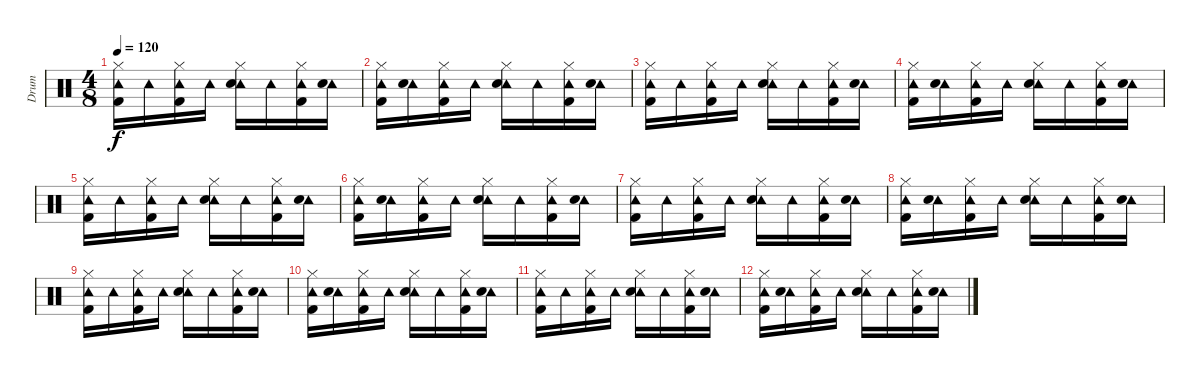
\track ("Drum" "Drum") {instrument percussion}
\staff {score}
\articulation defaults
\ts (4 8)
\tempo 120
\clef neutral
\ks c
("Hi-Hat (closed)" "Tambourine (hit)" "Kick (hit) 2").16{dy f} "Tambourine (hit)".16 ("Hi-Hat (closed)" "Tambourine (hit)" "Kick (hit) 2").16 "Tambourine (hit)".16 ("Hi-Hat (closed)" "Tambourine (hit)" "Electric Snare (hit)").16 "Tambourine (hit)".16 ("Hi-Hat (closed)" "Tambourine (hit)" "Kick (hit) 2").16 ("Tambourine (hit)" "Electric Snare (hit)").16 |
("Hi-Hat (closed)" "Tambourine (hit)" "Kick (hit) 2").16 ("Tambourine (hit)" "Electric Snare (hit)").16 ("Hi-Hat (closed)" "Tambourine (hit)" "Kick (hit) 2").16 "Tambourine (hit)".16 ("Hi-Hat (closed)" "Tambourine (hit)" "Electric Snare (hit)").16 "Tambourine (hit)".16 ("Hi-Hat (closed)" "Tambourine (hit)" "Kick (hit) 2").16 ("Tambourine (hit)" "Electric Snare (hit)").16 |
("Hi-Hat (closed)" "Tambourine (hit)" "Kick (hit) 2").16 "Tambourine (hit)".16 ("Hi-Hat (closed)" "Tambourine (hit)" "Kick (hit) 2").16 "Tambourine (hit)".16 ("Hi-Hat (closed)" "Tambourine (hit)" "Electric Snare (hit)").16 "Tambourine (hit)".16 ("Hi-Hat (closed)" "Tambourine (hit)" "Kick (hit) 2").16 ("Tambourine (hit)" "Electric Snare (hit)").16 |
("Hi-Hat (closed)" "Tambourine (hit)" "Kick (hit) 2").16 ("Tambourine (hit)" "Electric Snare (hit)").16 ("Hi-Hat (closed)" "Tambourine (hit)" "Kick (hit) 2").16 "Tambourine (hit)".16 ("Hi-Hat (closed)" "Tambourine (hit)" "Electric Snare (hit)").16 "Tambourine (hit)".16 ("Hi-Hat (closed)" "Tambourine (hit)" "Kick (hit) 2").16 ("Tambourine (hit)" "Electric Snare (hit)").16 |
("Hi-Hat (closed)" "Tambourine (hit)" "Kick (hit) 2").16{volume 8} "Tambourine (hit)".16 ("Hi-Hat (closed)" "Tambourine (hit)" "Kick (hit) 2").16 "Tambourine (hit)".16 ("Hi-Hat (closed)" "Tambourine (hit)" "Electric Snare (hit)").16 "Tambourine (hit)".16 ("Hi-Hat (closed)" "Tambourine (hit)" "Kick (hit) 2").16 ("Tambourine (hit)" "Electric Snare (hit)").16 |
("Hi-Hat (closed)" "Tambourine (hit)" "Kick (hit) 2").16 ("Tambourine (hit)" "Electric Snare (hit)").16 ("Hi-Hat (closed)" "Tambourine (hit)" "Kick (hit) 2").16 "Tambourine (hit)".16 ("Hi-Hat (closed)" "Tambourine (hit)" "Electric Snare (hit)").16 "Tambourine (hit)".16 ("Hi-Hat (closed)" "Tambourine (hit)" "Kick (hit) 2").16 ("Tambourine (hit)" "Electric Snare (hit)").16 |
("Hi-Hat (closed)" "Tambourine (hit)" "Kick (hit) 2").16{volume 4} "Tambourine (hit)".16 ("Hi-Hat (closed)" "Tambourine (hit)" "Kick (hit) 2").16 "Tambourine (hit)".16 ("Hi-Hat (closed)" "Tambourine (hit)" "Electric Snare (hit)").16 "Tambourine (hit)".16 ("Hi-Hat (closed)" "Tambourine (hit)" "Kick (hit) 2").16 ("Tambourine (hit)" "Electric Snare (hit)").16 |
("Hi-Hat (closed)" "Tambourine (hit)" "Kick (hit) 2").16 ("Tambourine (hit)" "Electric Snare (hit)").16 ("Hi-Hat (closed)" "Tambourine (hit)" "Kick (hit) 2").16 "Tambourine (hit)".16 ("Hi-Hat (closed)" "Tambourine (hit)" "Electric Snare (hit)").16 "Tambourine (hit)".16 ("Hi-Hat (closed)" "Tambourine (hit)" "Kick (hit) 2").16 ("Tambourine (hit)" "Electric Snare (hit)").16 |
("Hi-Hat (closed)" "Tambourine (hit)" "Kick (hit) 2").16{volume 0} "Tambourine (hit)".16 ("Hi-Hat (closed)" "Tambourine (hit)" "Kick (hit) 2").16 "Tambourine (hit)".16 ("Hi-Hat (closed)" "Tambourine (hit)" "Electric Snare (hit)").16 "Tambourine (hit)".16 ("Hi-Hat (closed)" "Tambourine (hit)" "Kick (hit) 2").16 ("Tambourine (hit)" "Electric Snare (hit)").16 |
("Hi-Hat (closed)" "Tambourine (hit)" "Kick (hit) 2").16 ("Tambourine (hit)" "Electric Snare (hit)").16 ("Hi-Hat (closed)" "Tambourine (hit)" "Kick (hit) 2").16 "Tambourine (hit)".16 ("Hi-Hat (closed)" "Tambourine (hit)" "Electric Snare (hit)").16 "Tambourine (hit)".16 ("Hi-Hat (closed)" "Tambourine (hit)" "Kick (hit) 2").16 ("Tambourine (hit)" "Electric Snare (hit)").16 |
("Hi-Hat (closed)" "Tambourine (hit)" "Kick (hit) 2").16 "Tambourine (hit)".16 ("Hi-Hat (closed)" "Tambourine (hit)" "Kick (hit) 2").16 "Tambourine (hit)".16 ("Hi-Hat (closed)" "Tambourine (hit)" "Electric Snare (hit)").16 "Tambourine (hit)".16 ("Hi-Hat (closed)" "Tambourine (hit)" "Kick (hit) 2").16 ("Tambourine (hit)" "Electric Snare (hit)").16 |
("Hi-Hat (closed)" "Tambourine (hit)" "Kick (hit) 2").16 ("Tambourine (hit)" "Electric Snare (hit)").16 ("Hi-Hat (closed)" "Tambourine (hit)" "Kick (hit) 2").16 "Tambourine (hit)".16 ("Hi-Hat (closed)" "Tambourine (hit)" "Electric Snare (hit)").16 "Tambourine (hit)".16 ("Hi-Hat (closed)" "Tambourine (hit)" "Kick (hit) 2").16 ("Tambourine (hit)" "Electric Snare (hit)").16
